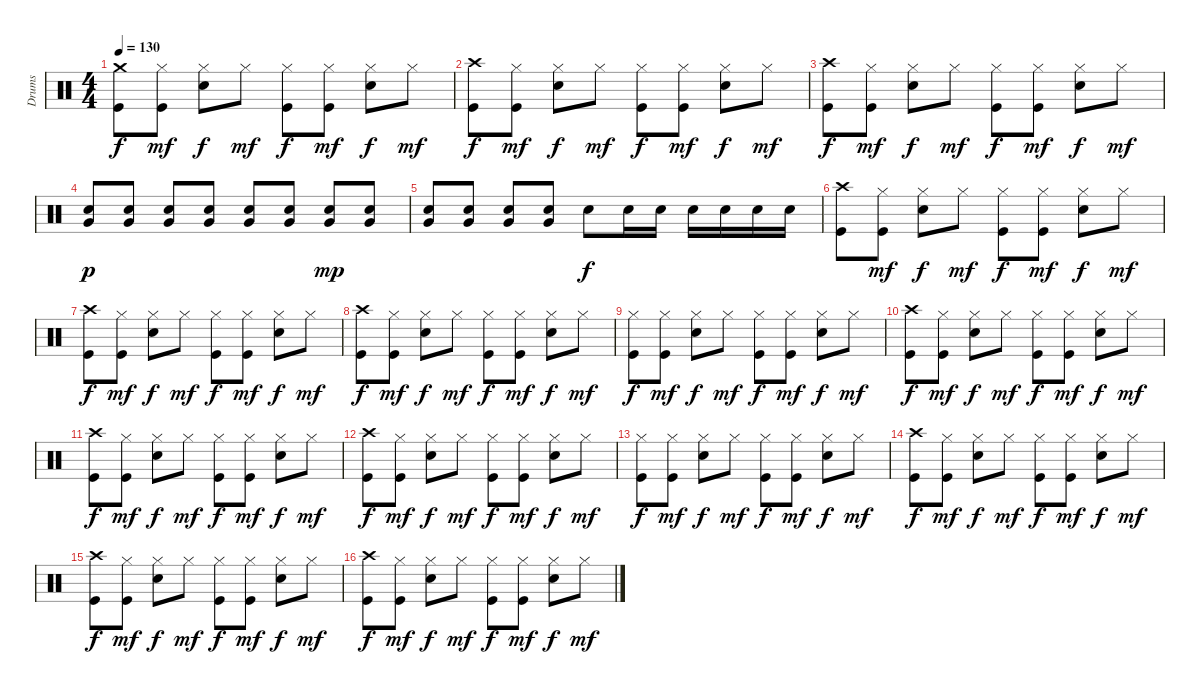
\track ("Drums" "Drums") {instrument percussion}
\staff {score}
\articulation defaults
\ts (4 4)
\tempo 130
\clef neutral
\ks c
("Kick (hit)" "Crash medium (hit)").8{dy f} ("Hi-Hat (closed)" "Kick (hit)").8{dy mf} ("Hi-Hat (closed)" "Snare (hit) 2").8{dy f} "Hi-Hat (closed)".8{dy mf} ("Hi-Hat (closed)" "Kick (hit)").8{dy f} ("Hi-Hat (closed)" "Kick (hit)").8{dy mf} ("Hi-Hat (closed)" "Snare (hit) 2").8{dy f} "Hi-Hat (closed)".8{dy mf} |
("Kick (hit)" "Crash high (hit)").8{dy f} ("Hi-Hat (closed)" "Kick (hit)").8{dy mf} ("Hi-Hat (closed)" "Snare (hit) 2").8{dy f} "Hi-Hat (closed)".8{dy mf} ("Hi-Hat (closed)" "Kick (hit)").8{dy f} ("Hi-Hat (closed)" "Kick (hit)").8{dy mf} ("Hi-Hat (closed)" "Snare (hit) 2").8{dy f} "Hi-Hat (closed)".8{dy mf} |
("Kick (hit)" "Crash high (hit)").8{dy f} ("Hi-Hat (closed)" "Kick (hit)").8{dy mf} ("Hi-Hat (closed)" "Snare (hit) 2").8{dy f} "Hi-Hat (closed)".8{dy mf} ("Hi-Hat (closed)" "Kick (hit)").8{dy f} ("Hi-Hat (closed)" "Kick (hit)").8{dy mf} ("Hi-Hat (closed)" "Snare (hit) 2").8{dy f} "Hi-Hat (closed)".8{dy mf} |
("Snare (hit) 2" "Very Low Tom (hit)").8{dy p} ("Snare (hit) 2" "Very Low Tom (hit)").8 ("Snare (hit) 2" "Very Low Tom (hit)").8 ("Snare (hit) 2" "Very Low Tom (hit)").8 ("Snare (hit) 2" "Very Low Tom (hit)").8 ("Snare (hit) 2" "Very Low Tom (hit)").8 ("Snare (hit) 2" "Very Low Tom (hit)").8{dy mp} ("Snare (hit) 2" "Very Low Tom (hit)").8 |
("Snare (hit) 2" "Very Low Tom (hit)").8 ("Snare (hit) 2" "Very Low Tom (hit)").8 ("Snare (hit) 2" "Very Low Tom (hit)").8 ("Snare (hit) 2" "Very Low Tom (hit)").8 "Snare (hit) 2".8{dy f} "Snare (hit) 2".16 "Snare (hit) 2".16 "Snare (hit) 2".16 "Snare (hit) 2".16 "Snare (hit) 2".16 "Snare (hit) 2".16 |
("Kick (hit)" "Crash high (hit)").8 ("Hi-Hat (closed)" "Kick (hit)").8{dy mf} ("Hi-Hat (closed)" "Snare (hit) 2").8{dy f} "Hi-Hat (closed)".8{dy mf} ("Hi-Hat (closed)" "Kick (hit)").8{dy f} ("Hi-Hat (closed)" "Kick (hit)").8{dy mf} ("Hi-Hat (closed)" "Snare (hit) 2").8{dy f} "Hi-Hat (closed)".8{dy mf} |
("Crash high (hit)" "Kick (hit)").8{dy f} ("Hi-Hat (closed)" "Kick (hit)").8{dy mf} ("Hi-Hat (closed)" "Snare (hit) 2").8{dy f} "Hi-Hat (closed)".8{dy mf} ("Hi-Hat (closed)" "Kick (hit)").8{dy f} ("Hi-Hat (closed)" "Kick (hit)").8{dy mf} ("Hi-Hat (closed)" "Snare (hit) 2").8{dy f} "Hi-Hat (closed)".8{dy mf} |
("Crash high (hit)" "Kick (hit)").8{dy f} ("Hi-Hat (closed)" "Kick (hit)").8{dy mf} ("Hi-Hat (closed)" "Snare (hit) 2").8{dy f} "Hi-Hat (closed)".8{dy mf} ("Hi-Hat (closed)" "Kick (hit)").8{dy f} ("Hi-Hat (closed)" "Kick (hit)").8{dy mf} ("Hi-Hat (closed)" "Snare (hit) 2").8{dy f} "Hi-Hat (closed)".8{dy mf} |
("Hi-Hat (closed)" "Kick (hit)").8{dy f} ("Hi-Hat (closed)" "Kick (hit)").8{dy mf} ("Hi-Hat (closed)" "Snare (hit) 2").8{dy f} "Hi-Hat (closed)".8{dy mf} ("Hi-Hat (closed)" "Kick (hit)").8{dy f} ("Hi-Hat (closed)" "Kick (hit)").8{dy mf} ("Hi-Hat (closed)" "Snare (hit) 2").8{dy f} "Hi-Hat (closed)".8{dy mf} |
("Crash high (hit)" "Kick (hit)").8{dy f} ("Hi-Hat (closed)" "Kick (hit)").8{dy mf} ("Hi-Hat (closed)" "Snare (hit) 2").8{dy f} "Hi-Hat (closed)".8{dy mf} ("Hi-Hat (closed)" "Kick (hit)").8{dy f} ("Hi-Hat (closed)" "Kick (hit)").8{dy mf} ("Hi-Hat (closed)" "Snare (hit) 2").8{dy f} "Hi-Hat (closed)".8{dy mf} |
("Crash high (hit)" "Kick (hit)").8{dy f} ("Hi-Hat (closed)" "Kick (hit)").8{dy mf} ("Hi-Hat (closed)" "Snare (hit) 2").8{dy f} "Hi-Hat (closed)".8{dy mf} ("Hi-Hat (closed)" "Kick (hit)").8{dy f} ("Hi-Hat (closed)" "Kick (hit)").8{dy mf} ("Hi-Hat (closed)" "Snare (hit) 2").8{dy f} "Hi-Hat (closed)".8{dy mf} |
("Crash high (hit)" "Kick (hit)").8{dy f} ("Hi-Hat (closed)" "Kick (hit)").8{dy mf} ("Hi-Hat (closed)" "Snare (hit) 2").8{dy f} "Hi-Hat (closed)".8{dy mf} ("Hi-Hat (closed)" "Kick (hit)").8{dy f} ("Hi-Hat (closed)" "Kick (hit)").8{dy mf} ("Hi-Hat (closed)" "Snare (hit) 2").8{dy f} "Hi-Hat (closed)".8{dy mf} |
("Hi-Hat (closed)" "Kick (hit)").8{dy f} ("Hi-Hat (closed)" "Kick (hit)").8{dy mf} ("Hi-Hat (closed)" "Snare (hit) 2").8{dy f} "Hi-Hat (closed)".8{dy mf} ("Hi-Hat (closed)" "Kick (hit)").8{dy f} ("Hi-Hat (closed)" "Kick (hit)").8{dy mf} ("Hi-Hat (closed)" "Snare (hit) 2").8{dy f} "Hi-Hat (closed)".8{dy mf} |
("Crash high (hit)" "Kick (hit)").8{dy f} ("Hi-Hat (closed)" "Kick (hit)").8{dy mf} ("Hi-Hat (closed)" "Snare (hit) 2").8{dy f} "Hi-Hat (closed)".8{dy mf} ("Hi-Hat (closed)" "Kick (hit)").8{dy f} ("Hi-Hat (closed)" "Kick (hit)").8{dy mf} ("Hi-Hat (closed)" "Snare (hit) 2").8{dy f} "Hi-Hat (closed)".8{dy mf} |
("Crash high (hit)" "Kick (hit)").8{dy f} ("Hi-Hat (closed)" "Kick (hit)").8{dy mf} ("Hi-Hat (closed)" "Snare (hit) 2").8{dy f} "Hi-Hat (closed)".8{dy mf} ("Hi-Hat (closed)" "Kick (hit)").8{dy f} ("Hi-Hat (closed)" "Kick (hit)").8{dy mf} ("Hi-Hat (closed)" "Snare (hit) 2").8{dy f} "Hi-Hat (closed)".8{dy mf} |
("Crash high (hit)" "Kick (hit)").8{dy f} ("Hi-Hat (closed)" "Kick (hit)").8{dy mf} ("Hi-Hat (closed)" "Snare (hit) 2").8{dy f} "Hi-Hat (closed)".8{dy mf} ("Hi-Hat (closed)" "Kick (hit)").8{dy f} ("Hi-Hat (closed)" "Kick (hit)").8{dy mf} ("Hi-Hat (closed)" "Snare (hit) 2").8{dy f} "Hi-Hat (closed)".8{dy mf}
